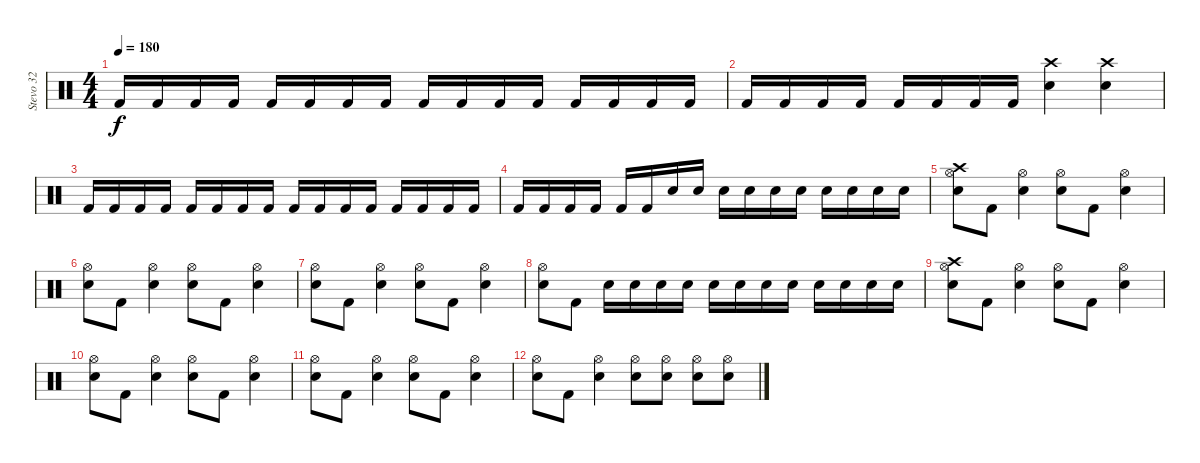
\track ("Stevo 32" "Stevo 32") {instrument percussion}
\staff {score}
\articulation defaults
\ts (4 4)
\tempo 180
\clef neutral
\ks c "Kick (hit) 2".16{dy f} "Kick (hit) 2".16 "Kick (hit) 2".16 "Kick (hit) 2".16 "Kick (hit) 2".16 "Kick (hit) 2".16 "Kick (hit) 2".16 "Kick (hit) 2".16 "Kick (hit) 2".16 "Kick (hit) 2".16 "Kick (hit) 2".16 "Kick (hit) 2".16 "Kick (hit) 2".16 "Kick (hit) 2".16 "Kick (hit) 2".16 "Kick (hit) 2".16
|
"Kick (hit) 2".16 "Kick (hit) 2".16 "Kick (hit) 2".16 "Kick (hit) 2".16 "Kick (hit) 2".16 "Kick (hit) 2".16 "Kick (hit) 2".16 "Kick (hit) 2".16 ("Crash high (hit)" "Snare (hit) 2").4 ("Crash high (hit)" "Snare (hit) 2").4 |
"Kick (hit) 2".16 "Kick (hit) 2".16 "Kick (hit) 2".16 "Kick (hit) 2".16 "Kick (hit) 2".16 "Kick (hit) 2".16 "Kick (hit) 2".16 "Kick (hit) 2".16 "Kick (hit) 2".16 "Kick (hit) 2".16 "Kick (hit) 2".16 "Kick (hit) 2".16 "Kick (hit) 2".16 "Kick (hit) 2".16 "Kick (hit) 2".16 "Kick (hit) 2".16 |
"Kick (hit) 2".16 "Kick (hit) 2".16 "Kick (hit) 2".16 "Kick (hit) 2".16 "Kick (hit) 2".16 "Kick (hit) 2".16 "Snare (hit) 2".16 "Snare (hit) 2".16 "Snare (hit) 2".16 "Snare (hit) 2".16 "Snare (hit) 2".16 "Snare (hit) 2".16 "Snare (hit) 2".16 "Snare (hit) 2".16 "Snare (hit) 2".16 "Snare (hit) 2".16 |
("Hi-Hat (open)" "Crash high (hit)" "Snare (hit) 2").8 "Kick (hit) 2".8 ("Hi-Hat (open)" "Snare (hit) 2").4 ("Hi-Hat (open)" "Snare (hit) 2").8 "Kick (hit) 2".8 ("Hi-Hat (open)" "Snare (hit) 2").4 |
("Hi-Hat (open)" "Snare (hit) 2").8 "Kick (hit) 2".8 ("Hi-Hat (open)" "Snare (hit) 2").4 ("Hi-Hat (open)" "Snare (hit) 2").8 "Kick (hit) 2".8 ("Hi-Hat (open)" "Snare (hit) 2").4 |
("Hi-Hat (open)" "Snare (hit) 2").8 "Kick (hit) 2".8 ("Hi-Hat (open)" "Snare (hit) 2").4 ("Hi-Hat (open)" "Snare (hit) 2").8 "Kick (hit) 2".8 ("Hi-Hat (open)" "Snare (hit) 2").4 |
("Hi-Hat (open)" "Snare (hit) 2").8 "Kick (hit) 2".8 "Snare (hit) 2".16 "Snare (hit) 2".16 "Snare (hit) 2".16 "Snare (hit) 2".16 "Snare (hit) 2".16 "Snare (hit) 2".16 "Snare (hit) 2".16 "Snare (hit) 2".16 "Snare (hit) 2".16 "Snare (hit) 2".16 "Snare (hit) 2".16 "Snare (hit) 2".16 |
("Hi-Hat (open)" "Crash high (hit)" "Snare (hit) 2").8 "Kick (hit) 2".8 ("Hi-Hat (open)" "Snare (hit) 2").4 ("Hi-Hat (open)" "Snare (hit) 2").8 "Kick (hit) 2".8 ("Hi-Hat (open)" "Snare (hit) 2").4 |
("Hi-Hat (open)" "Snare (hit) 2").8 "Kick (hit) 2".8 ("Hi-Hat (open)" "Snare (hit) 2").4 ("Hi-Hat (open)" "Snare (hit) 2").8 "Kick (hit) 2".8 ("Hi-Hat (open)" "Snare (hit) 2").4 |
("Hi-Hat (open)" "Snare (hit) 2").8 "Kick (hit) 2".8 ("Hi-Hat (open)" "Snare (hit) 2").4 ("Hi-Hat (open)" "Snare (hit) 2").8 "Kick (hit) 2".8 ("Hi-Hat (open)" "Snare (hit) 2").4 |
("Hi-Hat (open)" "Snare (hit) 2").8 "Kick (hit) 2".8 ("Hi-Hat (open)" "Snare (hit) 2").4 ("Hi-Hat (open)" "Snare (hit) 2").8 ("Hi-Hat (open)" "Snare (hit) 2").8 ("Hi-Hat (open)" "Snare (hit) 2").8 ("Hi-Hat (open)" "Snare (hit) 2").8
